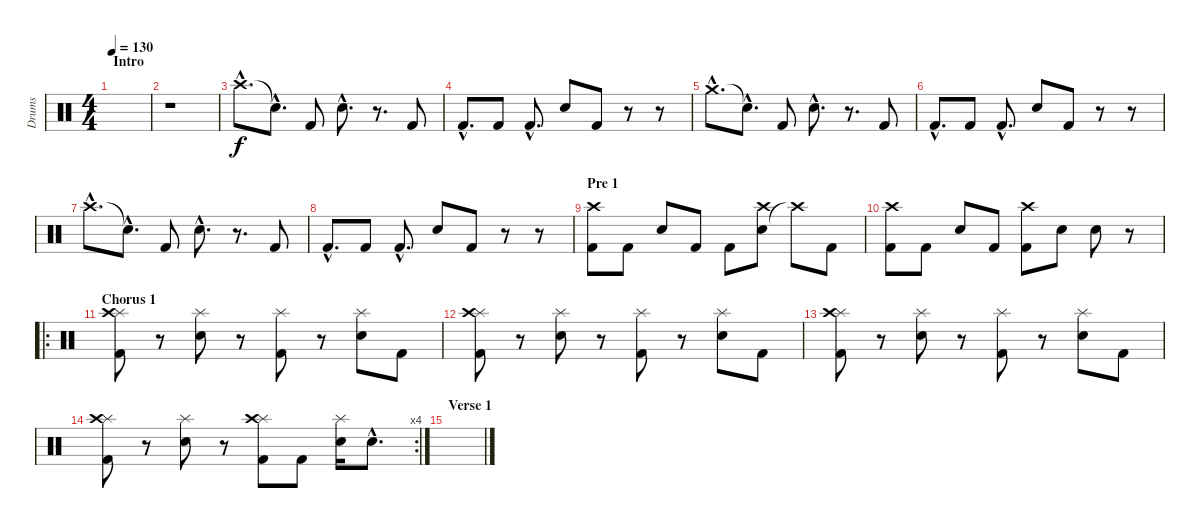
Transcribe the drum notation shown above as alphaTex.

\track ("Drums" "Drums") {instrument percussion}
\staff {score}
\articulation defaults
\ts (4 4)
\section ("" "Intro")
\tempo 130
\clef neutral
\ks c
|
r.1 |
"Crash high (hit)"{hac}.8{d} "Snare (hit)"{hac t}.8{d} "Kick (hit) 2".8 "Electric Snare (hit)"{hac}.8{d} r.8{d} "Kick (hit) 2".8 |
"Kick (hit) 2"{hac}.8{d} "Kick (hit) 2".8 "Kick (hit) 2"{hac}.8{d} "Electric Snare (hit)".8 "Kick (hit) 2".8 r.8 r.8 |
"Crash medium (hit)"{hac}.8{d} "Snare (hit)"{hac t}.8{d} "Kick (hit) 2".8 "Electric Snare (hit)"{hac}.8{d} r.8{d} "Kick (hit) 2".8 |
"Kick (hit) 2"{hac}.8{d} "Kick (hit) 2".8 "Kick (hit) 2"{hac}.8{d} "Electric Snare (hit)".8 "Kick (hit) 2".8 r.8 r.8 |
"Crash high (hit)"{hac}.8{d} "Snare (hit)"{hac t}.8{d} "Kick (hit) 2".8 "Electric Snare (hit)"{hac}.8{d} r.8{d} "Kick (hit) 2".8 |
"Kick (hit) 2"{hac}.8{d} "Kick (hit) 2".8 "Kick (hit) 2"{hac}.8{d} "Electric Snare (hit)".8 "Kick (hit) 2".8 r.8 r.8 |
\section ("" "Pre 1")
("Kick (hit) 2" "Crash high (hit)").8 "Kick (hit) 2".8 "Electric Snare (hit)".8 "Kick (hit) 2".8 "Kick (hit) 2".8 ("Electric Snare (hit)" "Crash high (hit)").8 "Crash high (hit)"{t}.8 "Kick (hit) 2".8 |
("Kick (hit) 2" "Crash high (hit)").8 "Kick (hit) 2".8 "Electric Snare (hit)".8 "Kick (hit) 2".8 ("Kick (hit) 2" "Crash high (hit)").8 "Electric Snare (hit)".8 "Electric Snare (hit)".8 r.8 |
\ro
\section ("" "Chorus 1")
("Kick (hit) 2" "Splash (hit)" "Crash high (hit)").8{volume 14} r.8 ("Electric Snare (hit)" "Splash (hit)").8 r.8 ("Kick (hit) 2" "Splash (hit)").8 r.8 ("Electric Snare (hit)" "Splash (hit)").8 "Kick (hit) 2".8 |
("Kick (hit) 2" "Splash (hit)" "Crash high (hit)").8 r.8 ("Electric Snare (hit)" "Splash (hit)").8 r.8 ("Kick (hit) 2" "Splash (hit)").8 r.8 ("Electric Snare (hit)" "Splash (hit)").8 "Kick (hit) 2".8 |
("Kick (hit) 2" "Splash (hit)" "Crash high (hit)").8 r.8 ("Electric Snare (hit)" "Splash (hit)").8 r.8 ("Kick (hit) 2" "Splash (hit)").8 r.8 ("Electric Snare (hit)" "Splash (hit)").8 "Kick (hit) 2".8 |
\rc 4
("Kick (hit) 2" "Splash (hit)" "Crash high (hit)").8 r.8 ("Electric Snare (hit)" "Splash (hit)").8 r.8 ("Kick (hit) 2" "Splash (hit)" "Crash high (hit)").8 "Kick (hit) 2".8 ("Electric Snare (hit)" "Splash (hit)").16 "Electric Snare (hit)"{hac}.8{d} |
\section ("" "Verse 1")
